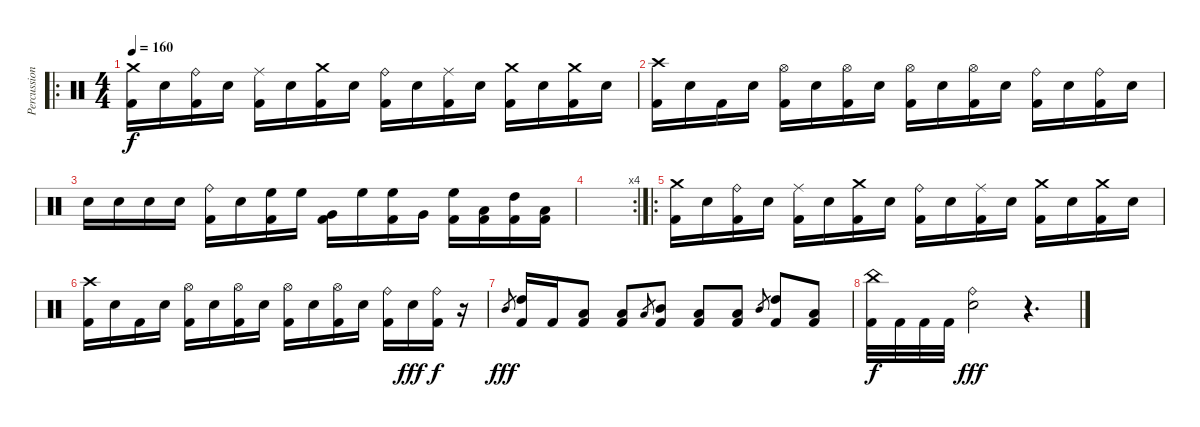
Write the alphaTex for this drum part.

\track ("Percussion" "Percussion") {instrument percussion}
\staff {score}
\articulation defaults
\ro
\ts (4 4)
\tempo 160
\clef neutral
\ks c
("Crash medium (hit)" "Kick (hit) 2").16{dy f} "Electric Snare (hit)".16 ("Ride (bell)" "Kick (hit) 2").16 "Electric Snare (hit)".16 ("Ride (middle)" "Kick (hit) 2").16 "Electric Snare (hit)".16 ("Crash medium (hit)" "Kick (hit) 2").16 "Electric Snare (hit)".16 ("Ride (bell)" "Kick (hit) 2").16 "Electric Snare (hit)".16 ("Ride (middle)" "Kick (hit) 2").16 "Electric Snare (hit)".16 ("Crash medium (hit)" "Kick (hit) 2").16 "Electric Snare (hit)".16 ("Crash medium (hit)" "Kick (hit) 2").16 "Electric Snare (hit)".16 |
("Crash high (hit)" "Kick (hit) 2").16 "Electric Snare (hit)".16 "Kick (hit) 2".16 "Electric Snare (hit)".16 ("Hi-Hat (open)" "Kick (hit) 2").16 "Electric Snare (hit)".16 ("Hi-Hat (open)" "Kick (hit) 2").16 "Electric Snare (hit)".16 ("Hi-Hat (open)" "Kick (hit) 2").16 "Electric Snare (hit)".16 ("Hi-Hat (open)" "Kick (hit) 2").16 "Electric Snare (hit)".16 ("Ride (bell)" "Kick (hit) 2").16 "Electric Snare (hit)".16 ("Ride (bell)" "Kick (hit) 2").16 "Electric Snare (hit)".16 |
"Electric Snare (hit)".16 "Electric Snare (hit)".16 "Electric Snare (hit)".16 "Electric Snare (hit)".16 ("Ride (bell)" "Kick (hit) 2").16 "Electric Snare (hit)".16 ("High Floor Tom (hit)" "Kick (hit) 2").16 "High Floor Tom (hit)".16 ("Very Low Tom (hit)" "Kick (hit) 2").16 "High Floor Tom (hit)".16 ("High Floor Tom (hit)" "Kick (hit) 2").16 "Very Low Tom (hit)".16 ("High Floor Tom (hit)" "Kick (hit) 2").16 ("Low Floor Tom (hit)" "Kick (hit) 2").16 ("High Tom (hit)" "Kick (hit) 2").16 ("Low Floor Tom (hit)" "Kick (hit) 2").16 |
\rc 4
|
\ro
("Crash medium (hit)" "Kick (hit) 2").16 "Electric Snare (hit)".16 ("Ride (bell)" "Kick (hit) 2").16 "Electric Snare (hit)".16 ("Ride (middle)" "Kick (hit) 2").16 "Electric Snare (hit)".16 ("Crash medium (hit)" "Kick (hit) 2").16 "Electric Snare (hit)".16 ("Ride (bell)" "Kick (hit) 2").16 "Electric Snare (hit)".16 ("Ride (middle)" "Kick (hit) 2").16 "Electric Snare (hit)".16 ("Crash medium (hit)" "Kick (hit) 2").16 "Electric Snare (hit)".16 ("Crash medium (hit)" "Kick (hit) 2").16 "Electric Snare (hit)".16 |
("Crash high (hit)" "Kick (hit) 2").16 "Electric Snare (hit)".16 "Kick (hit) 2".16 "Electric Snare (hit)".16 ("Hi-Hat (open)" "Kick (hit) 2").16 "Electric Snare (hit)".16 ("Hi-Hat (open)" "Kick (hit) 2").16 "Electric Snare (hit)".16 ("Hi-Hat (open)" "Kick (hit) 2").16 "Electric Snare (hit)".16 ("Hi-Hat (open)" "Kick (hit) 2").16 "Electric Snare (hit)".16 ("Ride (bell)" "Kick (hit) 2").16 "Electric Snare (hit)".16{dy fff} ("Ride (bell)" "Kick (hit) 2").16{dy f} r.16 |
"Mid Tom (hit)".8{gr dy fff} ("High Tom (hit)" "Kick (hit) 2").16 "Kick (hit) 2".16 ("Low Floor Tom (hit)" "Kick (hit) 2").8 ("Low Floor Tom (hit)" "Kick (hit) 2").8 "Low Tom (hit)".8{gr} ("Mid Tom (hit)" "Kick (hit) 2").8 ("Low Floor Tom (hit)" "Kick (hit) 2").8 ("Low Floor Tom (hit)" "Kick (hit) 2").8 "Mid Tom (hit)".8{gr} ("High Tom (hit)" "Kick (hit) 2").8 ("Low Tom (hit)" "Kick (hit) 2").8 |
("China (hit)" "Kick (hit) 2").32{dy f} "Kick (hit) 2".32 "Kick (hit) 2".32 "Kick (hit) 2".32 ("Ride (bell)" "Electric Snare (hit)").2{dy fff} r.4{d}
